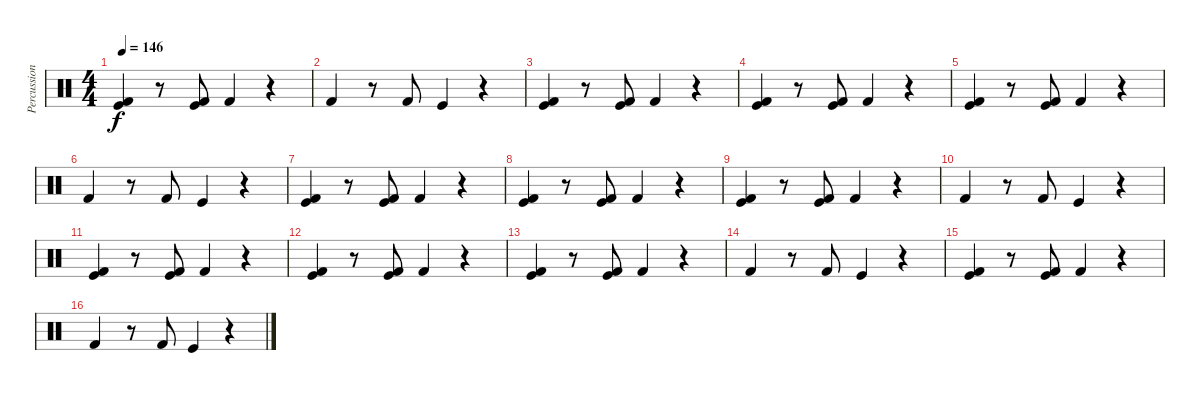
\track ("Percussion" "Percussion") {instrument percussion}
\staff {score}
\articulation defaults
\ts (4 4)
\tempo 146
\clef neutral
\ks c
("Kick (hit)" "Kick (hit) 2").4{dy f} r.8 ("Kick (hit)" "Kick (hit) 2").8 "Kick (hit) 2".4 r.4 |
"Kick (hit) 2".4 r.8 "Kick (hit) 2".8 "Kick (hit)".4 r.4 |
("Kick (hit)" "Kick (hit) 2").4 r.8 ("Kick (hit)" "Kick (hit) 2").8 "Kick (hit) 2".4 r.4 |
("Kick (hit)" "Kick (hit) 2").4 r.8 ("Kick (hit)" "Kick (hit) 2").8 "Kick (hit) 2".4 r.4 |
("Kick (hit)" "Kick (hit) 2").4 r.8 ("Kick (hit)" "Kick (hit) 2").8 "Kick (hit) 2".4 r.4 |
"Kick (hit) 2".4 r.8 "Kick (hit) 2".8 "Kick (hit)".4 r.4 |
("Kick (hit)" "Kick (hit) 2").4 r.8 ("Kick (hit)" "Kick (hit) 2").8 "Kick (hit) 2".4 r.4 |
("Kick (hit)" "Kick (hit) 2").4 r.8 ("Kick (hit)" "Kick (hit) 2").8 "Kick (hit) 2".4 r.4 |
("Kick (hit)" "Kick (hit) 2").4 r.8 ("Kick (hit)" "Kick (hit) 2").8 "Kick (hit) 2".4 r.4 |
"Kick (hit) 2".4 r.8 "Kick (hit) 2".8 "Kick (hit)".4 r.4 |
("Kick (hit)" "Kick (hit) 2").4 r.8 ("Kick (hit)" "Kick (hit) 2").8 "Kick (hit) 2".4 r.4 |
("Kick (hit)" "Kick (hit) 2").4 r.8 ("Kick (hit)" "Kick (hit) 2").8 "Kick (hit) 2".4 r.4 |
("Kick (hit)" "Kick (hit) 2").4 r.8 ("Kick (hit)" "Kick (hit) 2").8 "Kick (hit) 2".4 r.4 |
"Kick (hit) 2".4 r.8 "Kick (hit) 2".8 "Kick (hit)".4 r.4 |
("Kick (hit)" "Kick (hit) 2").4 r.8 ("Kick (hit)" "Kick (hit) 2").8 "Kick (hit) 2".4 r.4 |
"Kick (hit) 2".4 r.8 "Kick (hit) 2".8 "Kick (hit)".4 r.4
